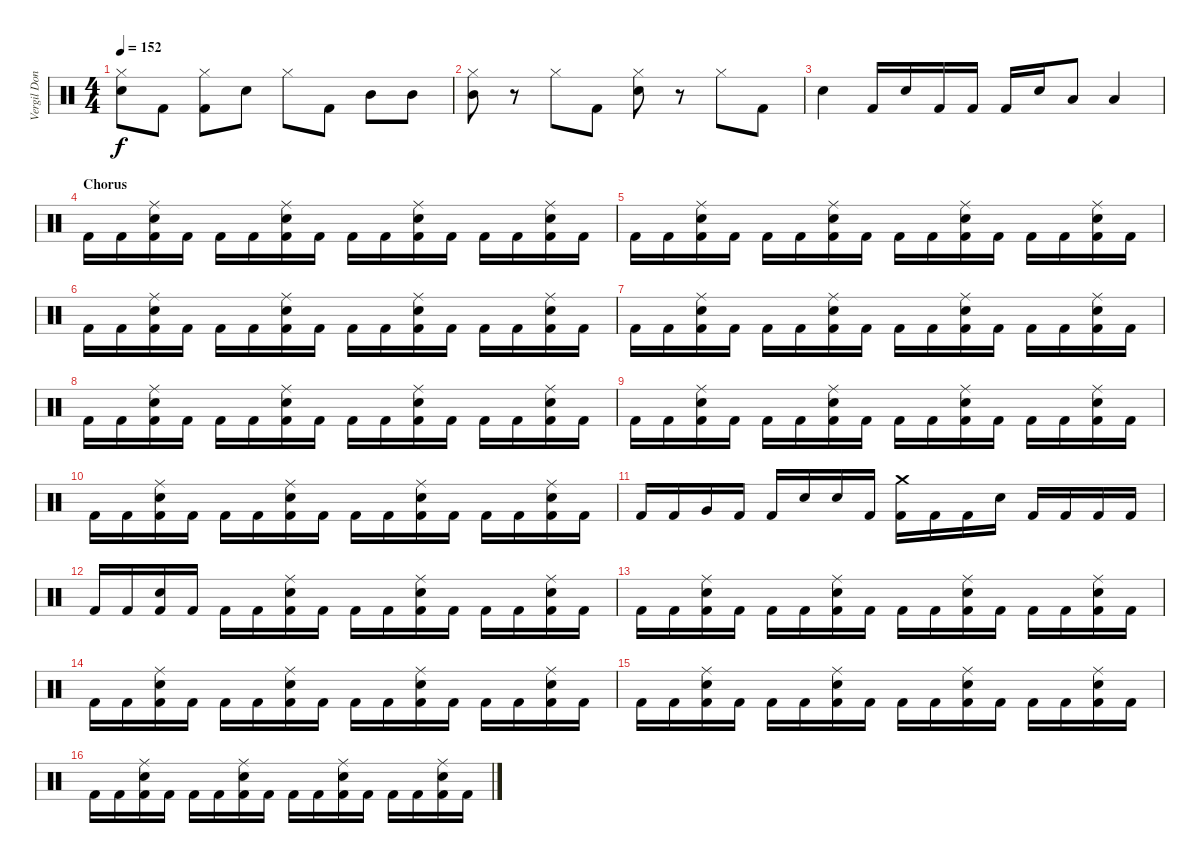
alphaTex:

\track ("Vergil Donati" "Vergil Don") {instrument percussion}
\staff {score}
\articulation defaults
\ts (4 4)
\tempo 152
\clef neutral
\ks c
("Electric Snare (hit)" "Hi-Hat (closed)").8{dy f} "Kick (hit) 2".8 ("Hi-Hat (closed)" "Kick (hit) 2").8 "Electric Snare (hit)".8 "Hi-Hat (closed)".8 "Kick (hit) 2".8 "Mid Tom (hit)".8 "Mid Tom (hit)".8 |
("Hi-Hat (closed)" "Mid Tom (hit)").8 r.8 "Hi-Hat (closed)".8 "Kick (hit) 2".8 ("Electric Snare (hit)" "Hi-Hat (closed)").8 r.8 "Hi-Hat (closed)".8 "Kick (hit) 2".8 |
"Electric Snare (hit)".4 "Kick (hit) 2".16 "Electric Snare (hit)".16 "Kick (hit) 2".16 "Kick (hit) 2".16 "Kick (hit) 2".16 "Electric Snare (hit)".16 "Low Tom (hit)".8 "Low Floor Tom (hit)".4 |
\section ("" "Chorus")
"Kick (hit) 2".16 "Kick (hit) 2".16 ("Electric Snare (hit)" "Ride (middle)" "Kick (hit) 2").16 "Kick (hit) 2".16 "Kick (hit) 2".16 "Kick (hit) 2".16 ("Electric Snare (hit)" "Ride (middle)" "Kick (hit) 2").16 "Kick (hit) 2".16 "Kick (hit) 2".16 "Kick (hit) 2".16 ("Electric Snare (hit)" "Ride (middle)" "Kick (hit) 2").16 "Kick (hit) 2".16 "Kick (hit) 2".16 "Kick (hit) 2".16 ("Electric Snare (hit)" "Ride (middle)" "Kick (hit) 2").16 "Kick (hit) 2".16 |
"Kick (hit) 2".16 "Kick (hit) 2".16 ("Electric Snare (hit)" "Ride (middle)" "Kick (hit) 2").16 "Kick (hit) 2".16 "Kick (hit) 2".16 "Kick (hit) 2".16 ("Electric Snare (hit)" "Ride (middle)" "Kick (hit) 2").16 "Kick (hit) 2".16 "Kick (hit) 2".16 "Kick (hit) 2".16 ("Electric Snare (hit)" "Ride (middle)" "Kick (hit) 2").16 "Kick (hit) 2".16 "Kick (hit) 2".16 "Kick (hit) 2".16 ("Electric Snare (hit)" "Ride (middle)" "Kick (hit) 2").16 "Kick (hit) 2".16 |
"Kick (hit) 2".16 "Kick (hit) 2".16 ("Electric Snare (hit)" "Ride (middle)" "Kick (hit) 2").16 "Kick (hit) 2".16 "Kick (hit) 2".16 "Kick (hit) 2".16 ("Electric Snare (hit)" "Ride (middle)" "Kick (hit) 2").16 "Kick (hit) 2".16 "Kick (hit) 2".16 "Kick (hit) 2".16 ("Electric Snare (hit)" "Ride (middle)" "Kick (hit) 2").16 "Kick (hit) 2".16 "Kick (hit) 2".16 "Kick (hit) 2".16 ("Electric Snare (hit)" "Ride (middle)" "Kick (hit) 2").16 "Kick (hit) 2".16 |
"Kick (hit) 2".16 "Kick (hit) 2".16 ("Electric Snare (hit)" "Ride (middle)" "Kick (hit) 2").16 "Kick (hit) 2".16 "Kick (hit) 2".16 "Kick (hit) 2".16 ("Electric Snare (hit)" "Ride (middle)" "Kick (hit) 2").16 "Kick (hit) 2".16 "Kick (hit) 2".16 "Kick (hit) 2".16 ("Electric Snare (hit)" "Ride (middle)" "Kick (hit) 2").16 "Kick (hit) 2".16 "Kick (hit) 2".16 "Kick (hit) 2".16 ("Electric Snare (hit)" "Ride (middle)" "Kick (hit) 2").16 "Kick (hit) 2".16 |
"Kick (hit) 2".16 "Kick (hit) 2".16 ("Electric Snare (hit)" "Ride (middle)" "Kick (hit) 2").16 "Kick (hit) 2".16 "Kick (hit) 2".16 "Kick (hit) 2".16 ("Electric Snare (hit)" "Ride (middle)" "Kick (hit) 2").16 "Kick (hit) 2".16 "Kick (hit) 2".16 "Kick (hit) 2".16 ("Electric Snare (hit)" "Ride (middle)" "Kick (hit) 2").16 "Kick (hit) 2".16 "Kick (hit) 2".16 "Kick (hit) 2".16 ("Electric Snare (hit)" "Ride (middle)" "Kick (hit) 2").16 "Kick (hit) 2".16 |
"Kick (hit) 2".16 "Kick (hit) 2".16 ("Electric Snare (hit)" "Ride (middle)" "Kick (hit) 2").16 "Kick (hit) 2".16 "Kick (hit) 2".16 "Kick (hit) 2".16 ("Electric Snare (hit)" "Ride (middle)" "Kick (hit) 2").16 "Kick (hit) 2".16 "Kick (hit) 2".16 "Kick (hit) 2".16 ("Electric Snare (hit)" "Ride (middle)" "Kick (hit) 2").16 "Kick (hit) 2".16 "Kick (hit) 2".16 "Kick (hit) 2".16 ("Electric Snare (hit)" "Ride (middle)" "Kick (hit) 2").16 "Kick (hit) 2".16 |
"Kick (hit) 2".16 "Kick (hit) 2".16 ("Electric Snare (hit)" "Ride (middle)" "Kick (hit) 2").16 "Kick (hit) 2".16 "Kick (hit) 2".16 "Kick (hit) 2".16 ("Electric Snare (hit)" "Ride (middle)" "Kick (hit) 2").16 "Kick (hit) 2".16 "Kick (hit) 2".16 "Kick (hit) 2".16 ("Electric Snare (hit)" "Ride (middle)" "Kick (hit) 2").16 "Kick (hit) 2".16 "Kick (hit) 2".16 "Kick (hit) 2".16 ("Electric Snare (hit)" "Ride (middle)" "Kick (hit) 2").16 "Kick (hit) 2".16 |
"Kick (hit) 2".16 "Kick (hit) 2".16 "Very Low Tom (hit)".16 "Kick (hit) 2".16 "Kick (hit) 2".16 "Electric Snare (hit)".16 "Electric Snare (hit)".16 "Kick (hit) 2".16 ("Crash medium (hit)" "Kick (hit) 2").16 "Kick (hit) 2".16 "Kick (hit) 2".16 "Electric Snare (hit)".16 "Kick (hit) 2".16 "Kick (hit) 2".16 "Kick (hit) 2".16 "Kick (hit) 2".16 |
"Kick (hit) 2".16 "Kick (hit) 2".16 ("Electric Snare (hit)" "Kick (hit) 2").16 "Kick (hit) 2".16 "Kick (hit) 2".16 "Kick (hit) 2".16 ("Electric Snare (hit)" "Ride (middle)" "Kick (hit) 2").16 "Kick (hit) 2".16 "Kick (hit) 2".16 "Kick (hit) 2".16 ("Electric Snare (hit)" "Ride (middle)" "Kick (hit) 2").16 "Kick (hit) 2".16 "Kick (hit) 2".16 "Kick (hit) 2".16 ("Electric Snare (hit)" "Ride (middle)" "Kick (hit) 2").16 "Kick (hit) 2".16 |
"Kick (hit) 2".16 "Kick (hit) 2".16 ("Electric Snare (hit)" "Ride (middle)" "Kick (hit) 2").16 "Kick (hit) 2".16 "Kick (hit) 2".16 "Kick (hit) 2".16 ("Electric Snare (hit)" "Ride (middle)" "Kick (hit) 2").16 "Kick (hit) 2".16 "Kick (hit) 2".16 "Kick (hit) 2".16 ("Electric Snare (hit)" "Ride (middle)" "Kick (hit) 2").16 "Kick (hit) 2".16 "Kick (hit) 2".16 "Kick (hit) 2".16 ("Electric Snare (hit)" "Ride (middle)" "Kick (hit) 2").16 "Kick (hit) 2".16 |
"Kick (hit) 2".16 "Kick (hit) 2".16 ("Electric Snare (hit)" "Ride (middle)" "Kick (hit) 2").16 "Kick (hit) 2".16 "Kick (hit) 2".16 "Kick (hit) 2".16 ("Electric Snare (hit)" "Ride (middle)" "Kick (hit) 2").16 "Kick (hit) 2".16 "Kick (hit) 2".16 "Kick (hit) 2".16 ("Electric Snare (hit)" "Ride (middle)" "Kick (hit) 2").16 "Kick (hit) 2".16 "Kick (hit) 2".16 "Kick (hit) 2".16 ("Electric Snare (hit)" "Ride (middle)" "Kick (hit) 2").16 "Kick (hit) 2".16 |
"Kick (hit) 2".16 "Kick (hit) 2".16 ("Electric Snare (hit)" "Ride (middle)" "Kick (hit) 2").16 "Kick (hit) 2".16 "Kick (hit) 2".16 "Kick (hit) 2".16 ("Electric Snare (hit)" "Ride (middle)" "Kick (hit) 2").16 "Kick (hit) 2".16 "Kick (hit) 2".16 "Kick (hit) 2".16 ("Electric Snare (hit)" "Ride (middle)" "Kick (hit) 2").16 "Kick (hit) 2".16 "Kick (hit) 2".16 "Kick (hit) 2".16 ("Electric Snare (hit)" "Ride (middle)" "Kick (hit) 2").16 "Kick (hit) 2".16 |
"Kick (hit) 2".16 "Kick (hit) 2".16 ("Electric Snare (hit)" "Ride (middle)" "Kick (hit) 2").16 "Kick (hit) 2".16 "Kick (hit) 2".16 "Kick (hit) 2".16 ("Electric Snare (hit)" "Ride (middle)" "Kick (hit) 2").16 "Kick (hit) 2".16 "Kick (hit) 2".16 "Kick (hit) 2".16 ("Electric Snare (hit)" "Ride (middle)" "Kick (hit) 2").16 "Kick (hit) 2".16 "Kick (hit) 2".16 "Kick (hit) 2".16 ("Electric Snare (hit)" "Ride (middle)" "Kick (hit) 2").16 "Kick (hit) 2".16
